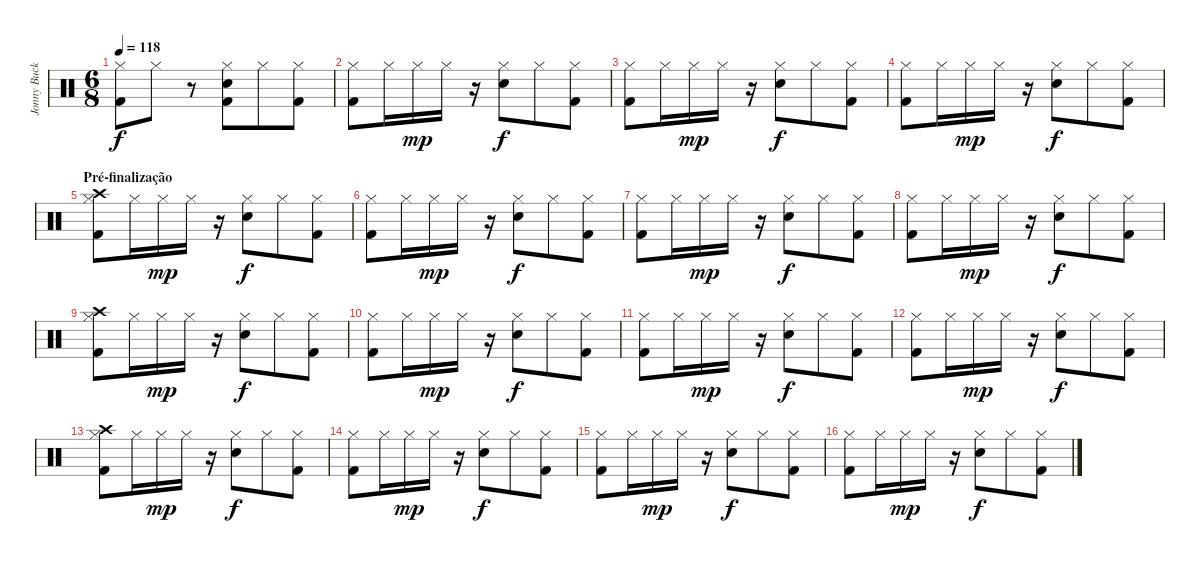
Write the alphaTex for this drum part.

\track ("Jonny Buckland (batera)" "Jonny Buck") {instrument percussion}
\staff {score}
\articulation defaults
\ts (6 8)
\tempo 118
\clef neutral
\ks c
("Hi-Hat (closed)" "Kick (hit) 2").8{dy f} "Hi-Hat (closed)".8 r.8 ("Hi-Hat (closed)" "Electric Snare (hit)" "Kick (hit) 2").8 "Hi-Hat (closed)".8 ("Hi-Hat (closed)" "Kick (hit) 2").8 |
("Hi-Hat (closed)" "Kick (hit) 2").8 "Hi-Hat (closed)".16 "Hi-Hat (closed)".16{dy mp} "Hi-Hat (closed)".16 r.16 ("Hi-Hat (closed)" "Electric Snare (hit)").8{dy f} "Hi-Hat (closed)".8 ("Hi-Hat (closed)" "Kick (hit) 2").8 |
("Hi-Hat (closed)" "Kick (hit) 2").8 "Hi-Hat (closed)".16 "Hi-Hat (closed)".16{dy mp} "Hi-Hat (closed)".16 r.16 ("Hi-Hat (closed)" "Electric Snare (hit)").8{dy f} "Hi-Hat (closed)".8 ("Hi-Hat (closed)" "Kick (hit) 2").8 |
("Hi-Hat (closed)" "Kick (hit) 2").8 "Hi-Hat (closed)".16 "Hi-Hat (closed)".16{dy mp} "Hi-Hat (closed)".16 r.16 ("Hi-Hat (closed)" "Electric Snare (hit)").8{dy f} "Hi-Hat (closed)".8 ("Hi-Hat (closed)" "Kick (hit) 2").8 |
\section ("" "Pré-finalização")
("Crash high (hit)" "Hi-Hat (closed)" "Kick (hit) 2").8 "Hi-Hat (closed)".16 "Hi-Hat (closed)".16{dy mp} "Hi-Hat (closed)".16 r.16 ("Hi-Hat (closed)" "Electric Snare (hit)").8{dy f} "Hi-Hat (closed)".8 ("Hi-Hat (closed)" "Kick (hit) 2").8 |
("Hi-Hat (closed)" "Kick (hit) 2").8 "Hi-Hat (closed)".16 "Hi-Hat (closed)".16{dy mp} "Hi-Hat (closed)".16 r.16 ("Hi-Hat (closed)" "Electric Snare (hit)").8{dy f} "Hi-Hat (closed)".8 ("Hi-Hat (closed)" "Kick (hit) 2").8 |
("Hi-Hat (closed)" "Kick (hit) 2").8 "Hi-Hat (closed)".16 "Hi-Hat (closed)".16{dy mp} "Hi-Hat (closed)".16 r.16 ("Hi-Hat (closed)" "Electric Snare (hit)").8{dy f} "Hi-Hat (closed)".8 ("Hi-Hat (closed)" "Kick (hit) 2").8 |
("Hi-Hat (closed)" "Kick (hit) 2").8 "Hi-Hat (closed)".16 "Hi-Hat (closed)".16{dy mp} "Hi-Hat (closed)".16 r.16 ("Hi-Hat (closed)" "Electric Snare (hit)").8{dy f} "Hi-Hat (closed)".8 ("Hi-Hat (closed)" "Kick (hit) 2").8 |
("Crash high (hit)" "Hi-Hat (closed)" "Kick (hit) 2").8 "Hi-Hat (closed)".16 "Hi-Hat (closed)".16{dy mp} "Hi-Hat (closed)".16 r.16 ("Hi-Hat (closed)" "Electric Snare (hit)").8{dy f} "Hi-Hat (closed)".8 ("Hi-Hat (closed)" "Kick (hit) 2").8 |
("Hi-Hat (closed)" "Kick (hit) 2").8 "Hi-Hat (closed)".16 "Hi-Hat (closed)".16{dy mp} "Hi-Hat (closed)".16 r.16 ("Hi-Hat (closed)" "Electric Snare (hit)").8{dy f} "Hi-Hat (closed)".8 ("Hi-Hat (closed)" "Kick (hit) 2").8 |
("Hi-Hat (closed)" "Kick (hit) 2").8 "Hi-Hat (closed)".16 "Hi-Hat (closed)".16{dy mp} "Hi-Hat (closed)".16 r.16 ("Hi-Hat (closed)" "Electric Snare (hit)").8{dy f} "Hi-Hat (closed)".8 ("Hi-Hat (closed)" "Kick (hit) 2").8 |
("Hi-Hat (closed)" "Kick (hit) 2").8 "Hi-Hat (closed)".16 "Hi-Hat (closed)".16{dy mp} "Hi-Hat (closed)".16 r.16 ("Hi-Hat (closed)" "Electric Snare (hit)").8{dy f} "Hi-Hat (closed)".8 ("Hi-Hat (closed)" "Kick (hit) 2").8 |
("Crash high (hit)" "Hi-Hat (closed)" "Kick (hit) 2").8 "Hi-Hat (closed)".16 "Hi-Hat (closed)".16{dy mp} "Hi-Hat (closed)".16 r.16 ("Hi-Hat (closed)" "Electric Snare (hit)").8{dy f} "Hi-Hat (closed)".8 ("Hi-Hat (closed)" "Kick (hit) 2").8 |
("Hi-Hat (closed)" "Kick (hit) 2").8 "Hi-Hat (closed)".16 "Hi-Hat (closed)".16{dy mp} "Hi-Hat (closed)".16 r.16 ("Hi-Hat (closed)" "Electric Snare (hit)").8{dy f} "Hi-Hat (closed)".8 ("Hi-Hat (closed)" "Kick (hit) 2").8 |
("Hi-Hat (closed)" "Kick (hit) 2").8 "Hi-Hat (closed)".16 "Hi-Hat (closed)".16{dy mp} "Hi-Hat (closed)".16 r.16 ("Hi-Hat (closed)" "Electric Snare (hit)").8{dy f} "Hi-Hat (closed)".8 ("Hi-Hat (closed)" "Kick (hit) 2").8 |
("Hi-Hat (closed)" "Kick (hit) 2").8 "Hi-Hat (closed)".16 "Hi-Hat (closed)".16{dy mp} "Hi-Hat (closed)".16 r.16 ("Hi-Hat (closed)" "Electric Snare (hit)").8{dy f} "Hi-Hat (closed)".8 ("Hi-Hat (closed)" "Kick (hit) 2").8
